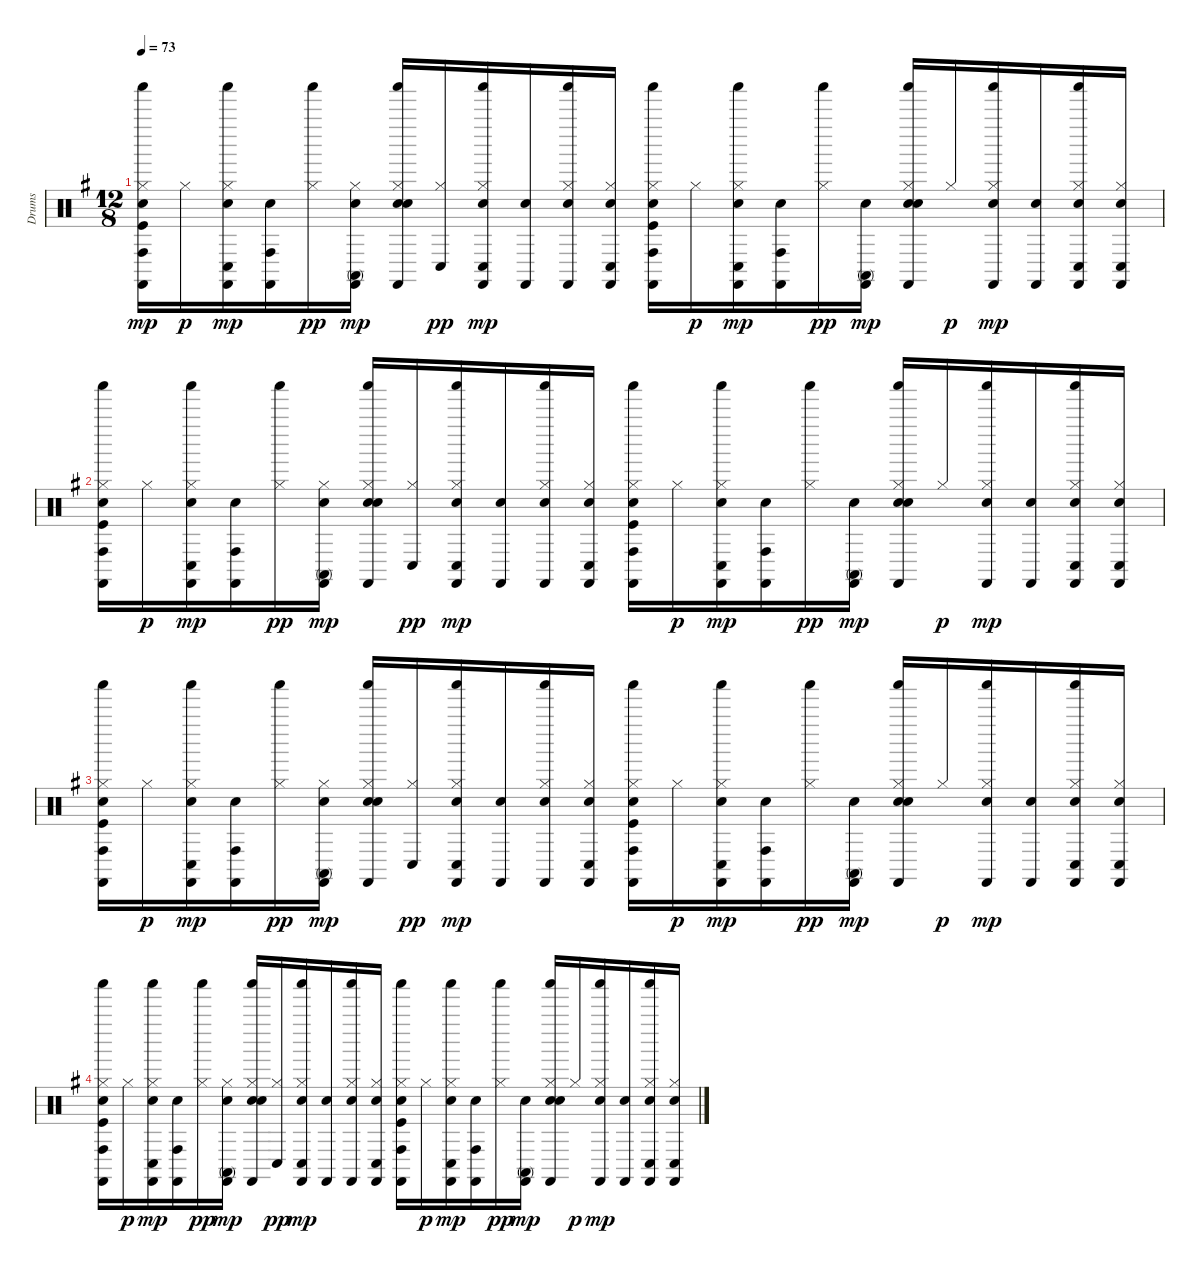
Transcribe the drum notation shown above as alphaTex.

\track ("Drums" "Drums") {instrument percussion}
\staff {score}
\articulation defaults
\ts (12 8)
\tempo 73
\clef neutral
\ks g
("Kick (hit)" "Hand Clap (hit)" "Hi-Hat (closed)" "Conga high (hit)" "Shaker (hit)" "Castanets (hit)").16{dy mp} "Hi-Hat (closed)".16{dy p} ("Hand Clap (hit)" "Hi-Hat (closed)" "Conga low (hit)" "Shaker (hit)" "Castanets (hit)").16{dy mp} ("Hand Clap (hit)" "Conga high (hit)" "Castanets (hit)").16 ("Hi-Hat (closed)" "Shaker (hit)").16{dy pp} ("Hand Clap (hit)" "Hi-Hat (closed)" "Conga high (mute)" "Castanets (hit)").16{dy mp} ("Hand Clap (hit)" "Electric Snare (hit)" "Hi-Hat (closed)" "Shaker (hit)" "Castanets (hit)").16 ("Hi-Hat (closed)" "Conga low (hit)").16{dy pp} ("Hand Clap (hit)" "Hi-Hat (closed)" "Conga low (hit)" "Shaker (hit)" "Castanets (hit)").16{dy mp} ("Hand Clap (hit)" "Castanets (hit)").16 ("Hand Clap (hit)" "Hi-Hat (closed)" "Shaker (hit)" "Castanets (hit)").16 ("Hand Clap (hit)" "Hi-Hat (closed)" "Conga low (hit)" "Castanets (hit)").16 ("Kick (hit)" "Hand Clap (hit)" "Hi-Hat (closed)" "Conga high (hit)" "Shaker (hit)" "Castanets (hit)").16 "Hi-Hat (closed)".16{dy p} ("Hand Clap (hit)" "Hi-Hat (closed)" "Conga low (hit)" "Shaker (hit)" "Castanets (hit)").16{dy mp} ("Hand Clap (hit)" "Conga high (hit)" "Castanets (hit)").16 ("Hi-Hat (closed)" "Shaker (hit)").16{dy pp} ("Hand Clap (hit)" "Conga high (mute)" "Castanets (hit)").16{dy mp} ("Hand Clap (hit)" "Electric Snare (hit)" "Hi-Hat (closed)" "Shaker (hit)" "Castanets (hit)").16 "Hi-Hat (closed)".16{dy p} ("Hand Clap (hit)" "Hi-Hat (closed)" "Shaker (hit)" "Castanets (hit)").16{dy mp} ("Hand Clap (hit)" "Castanets (hit)").16 ("Hand Clap (hit)" "Hi-Hat (closed)" "Conga low (hit)" "Shaker (hit)" "Castanets (hit)").16 ("Hand Clap (hit)" "Hi-Hat (closed)" "Conga low (hit)" "Castanets (hit)").16 |
("Kick (hit)" "Hand Clap (hit)" "Hi-Hat (closed)" "Conga high (hit)" "Shaker (hit)" "Castanets (hit)").16 "Hi-Hat (closed)".16{dy p} ("Hand Clap (hit)" "Hi-Hat (closed)" "Conga low (hit)" "Shaker (hit)" "Castanets (hit)").16{dy mp} ("Hand Clap (hit)" "Conga high (hit)" "Castanets (hit)").16 ("Hi-Hat (closed)" "Shaker (hit)").16{dy pp} ("Hand Clap (hit)" "Hi-Hat (closed)" "Conga high (mute)" "Castanets (hit)").16{dy mp} ("Hand Clap (hit)" "Electric Snare (hit)" "Hi-Hat (closed)" "Shaker (hit)" "Castanets (hit)").16 ("Hi-Hat (closed)" "Conga low (hit)").16{dy pp} ("Hand Clap (hit)" "Hi-Hat (closed)" "Conga low (hit)" "Shaker (hit)" "Castanets (hit)").16{dy mp} ("Hand Clap (hit)" "Castanets (hit)").16 ("Hand Clap (hit)" "Hi-Hat (closed)" "Shaker (hit)" "Castanets (hit)").16 ("Hand Clap (hit)" "Hi-Hat (closed)" "Conga low (hit)" "Castanets (hit)").16 ("Kick (hit)" "Hand Clap (hit)" "Hi-Hat (closed)" "Conga high (hit)" "Shaker (hit)" "Castanets (hit)").16 "Hi-Hat (closed)".16{dy p} ("Hand Clap (hit)" "Hi-Hat (closed)" "Conga low (hit)" "Shaker (hit)" "Castanets (hit)").16{dy mp} ("Hand Clap (hit)" "Conga high (hit)" "Castanets (hit)").16 ("Hi-Hat (closed)" "Shaker (hit)").16{dy pp} ("Hand Clap (hit)" "Conga high (mute)" "Castanets (hit)").16{dy mp} ("Hand Clap (hit)" "Electric Snare (hit)" "Hi-Hat (closed)" "Shaker (hit)" "Castanets (hit)").16 "Hi-Hat (closed)".16{dy p} ("Hand Clap (hit)" "Hi-Hat (closed)" "Shaker (hit)" "Castanets (hit)").16{dy mp} ("Hand Clap (hit)" "Castanets (hit)").16 ("Hand Clap (hit)" "Hi-Hat (closed)" "Conga low (hit)" "Shaker (hit)" "Castanets (hit)").16 ("Hand Clap (hit)" "Hi-Hat (closed)" "Conga low (hit)" "Castanets (hit)").16 |
("Kick (hit)" "Hand Clap (hit)" "Hi-Hat (closed)" "Conga high (hit)" "Shaker (hit)" "Castanets (hit)").16 "Hi-Hat (closed)".16{dy p} ("Hand Clap (hit)" "Hi-Hat (closed)" "Conga low (hit)" "Shaker (hit)" "Castanets (hit)").16{dy mp} ("Hand Clap (hit)" "Conga high (hit)" "Castanets (hit)").16 ("Hi-Hat (closed)" "Shaker (hit)").16{dy pp} ("Hand Clap (hit)" "Hi-Hat (closed)" "Conga high (mute)" "Castanets (hit)").16{dy mp} ("Hand Clap (hit)" "Electric Snare (hit)" "Hi-Hat (closed)" "Shaker (hit)" "Castanets (hit)").16 ("Hi-Hat (closed)" "Conga low (hit)").16{dy pp} ("Hand Clap (hit)" "Hi-Hat (closed)" "Conga low (hit)" "Shaker (hit)" "Castanets (hit)").16{dy mp} ("Hand Clap (hit)" "Castanets (hit)").16 ("Hand Clap (hit)" "Hi-Hat (closed)" "Shaker (hit)" "Castanets (hit)").16 ("Hand Clap (hit)" "Hi-Hat (closed)" "Conga low (hit)" "Castanets (hit)").16 ("Kick (hit)" "Hand Clap (hit)" "Hi-Hat (closed)" "Conga high (hit)" "Shaker (hit)" "Castanets (hit)").16 "Hi-Hat (closed)".16{dy p} ("Hand Clap (hit)" "Hi-Hat (closed)" "Conga low (hit)" "Shaker (hit)" "Castanets (hit)").16{dy mp} ("Hand Clap (hit)" "Conga high (hit)" "Castanets (hit)").16 ("Hi-Hat (closed)" "Shaker (hit)").16{dy pp} ("Hand Clap (hit)" "Conga high (mute)" "Castanets (hit)").16{dy mp} ("Hand Clap (hit)" "Electric Snare (hit)" "Hi-Hat (closed)" "Shaker (hit)" "Castanets (hit)").16 "Hi-Hat (closed)".16{dy p} ("Hand Clap (hit)" "Hi-Hat (closed)" "Shaker (hit)" "Castanets (hit)").16{dy mp} ("Hand Clap (hit)" "Castanets (hit)").16 ("Hand Clap (hit)" "Hi-Hat (closed)" "Conga low (hit)" "Shaker (hit)" "Castanets (hit)").16 ("Hand Clap (hit)" "Hi-Hat (closed)" "Conga low (hit)" "Castanets (hit)").16 |
("Kick (hit)" "Hand Clap (hit)" "Hi-Hat (closed)" "Conga high (hit)" "Shaker (hit)" "Castanets (hit)").16 "Hi-Hat (closed)".16{dy p} ("Hand Clap (hit)" "Hi-Hat (closed)" "Conga low (hit)" "Shaker (hit)" "Castanets (hit)").16{dy mp} ("Hand Clap (hit)" "Conga high (hit)" "Castanets (hit)").16 ("Hi-Hat (closed)" "Shaker (hit)").16{dy pp} ("Hand Clap (hit)" "Hi-Hat (closed)" "Conga high (mute)" "Castanets (hit)").16{dy mp} ("Hand Clap (hit)" "Electric Snare (hit)" "Hi-Hat (closed)" "Shaker (hit)" "Castanets (hit)").16 ("Hi-Hat (closed)" "Conga low (hit)").16{dy pp} ("Hand Clap (hit)" "Hi-Hat (closed)" "Conga low (hit)" "Shaker (hit)" "Castanets (hit)").16{dy mp} ("Hand Clap (hit)" "Castanets (hit)").16 ("Hand Clap (hit)" "Hi-Hat (closed)" "Shaker (hit)" "Castanets (hit)").16 ("Hand Clap (hit)" "Hi-Hat (closed)" "Conga low (hit)" "Castanets (hit)").16 ("Kick (hit)" "Hand Clap (hit)" "Hi-Hat (closed)" "Conga high (hit)" "Shaker (hit)" "Castanets (hit)").16 "Hi-Hat (closed)".16{dy p} ("Hand Clap (hit)" "Hi-Hat (closed)" "Conga low (hit)" "Shaker (hit)" "Castanets (hit)").16{dy mp} ("Hand Clap (hit)" "Conga high (hit)" "Castanets (hit)").16 ("Hi-Hat (closed)" "Shaker (hit)").16{dy pp} ("Hand Clap (hit)" "Conga high (mute)" "Castanets (hit)").16{dy mp} ("Hand Clap (hit)" "Electric Snare (hit)" "Hi-Hat (closed)" "Shaker (hit)" "Castanets (hit)").16 "Hi-Hat (closed)".16{dy p} ("Hand Clap (hit)" "Hi-Hat (closed)" "Shaker (hit)" "Castanets (hit)").16{dy mp} ("Hand Clap (hit)" "Castanets (hit)").16 ("Hand Clap (hit)" "Hi-Hat (closed)" "Conga low (hit)" "Shaker (hit)" "Castanets (hit)").16 ("Hand Clap (hit)" "Hi-Hat (closed)" "Conga low (hit)" "Castanets (hit)").16
